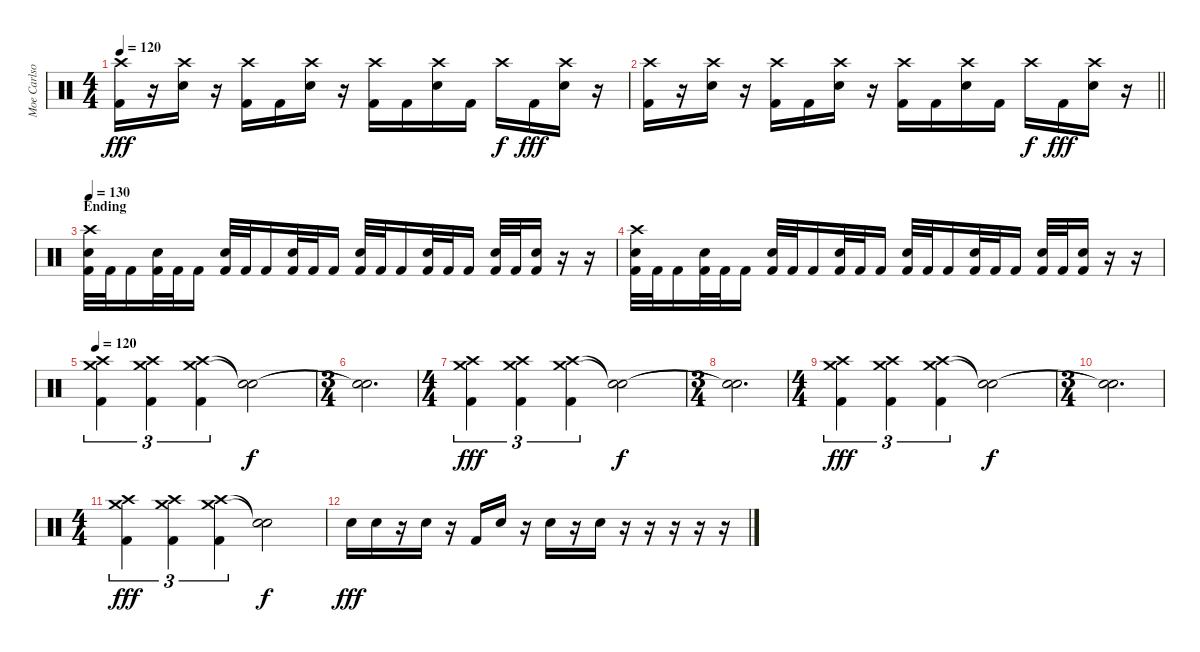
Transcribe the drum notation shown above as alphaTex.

\track ("Moe Carlson" "Moe Carlso") {instrument percussion}
\staff {score}
\articulation defaults
\ts (4 4)
\tempo 120
\clef neutral
\ks c
("Crash high (hit)" "Kick (hit) 2").16{dy fff} r.16 ("Crash high (hit)" "Electric Snare (hit)").16 r.16 ("Crash high (hit)" "Kick (hit) 2").16 "Kick (hit) 2".16 ("Crash high (hit)" "Electric Snare (hit)").16 r.16 ("Crash high (hit)" "Kick (hit) 2").16 "Kick (hit) 2".16 ("Crash high (hit)" "Electric Snare (hit)").16 "Kick (hit) 2".16 "Crash high (hit)".16{dy f} "Kick (hit) 2".16{dy fff} ("Crash high (hit)" "Electric Snare (hit)").16 r.16 |
\barLineRight lightlight
("Crash high (hit)" "Kick (hit) 2").16 r.16 ("Crash high (hit)" "Electric Snare (hit)").16 r.16 ("Crash high (hit)" "Kick (hit) 2").16 "Kick (hit) 2".16 ("Crash high (hit)" "Electric Snare (hit)").16 r.16 ("Crash high (hit)" "Kick (hit) 2").16 "Kick (hit) 2".16 ("Crash high (hit)" "Electric Snare (hit)").16 "Kick (hit) 2".16 "Crash high (hit)".16{dy f} "Kick (hit) 2".16{dy fff} ("Crash high (hit)" "Electric Snare (hit)").16 r.16 |
\section ("" "Ending")
\tempo 130
("Crash high (hit)" "Electric Snare (hit)" "Kick (hit) 2").32 "Kick (hit) 2".32 "Kick (hit) 2".16 ("Electric Snare (hit)" "Kick (hit) 2").32 "Kick (hit) 2".32 "Kick (hit) 2".16 ("Electric Snare (hit)" "Kick (hit) 2").32 "Kick (hit) 2".32 "Kick (hit) 2".16 ("Electric Snare (hit)" "Kick (hit) 2").32 "Kick (hit) 2".32 "Kick (hit) 2".16 ("Electric Snare (hit)" "Kick (hit) 2").32 "Kick (hit) 2".32 "Kick (hit) 2".16 ("Electric Snare (hit)" "Kick (hit) 2").32 "Kick (hit) 2".32 "Kick (hit) 2".16 ("Electric Snare (hit)" "Kick (hit) 2").32 "Kick (hit) 2".32 ("Electric Snare (hit)" "Kick (hit) 2").16 r.16 r.16 |
("Crash high (hit)" "Electric Snare (hit)" "Kick (hit) 2").32 "Kick (hit) 2".32 "Kick (hit) 2".16 ("Electric Snare (hit)" "Kick (hit) 2").32 "Kick (hit) 2".32 "Kick (hit) 2".16 ("Electric Snare (hit)" "Kick (hit) 2").32 "Kick (hit) 2".32 "Kick (hit) 2".16 ("Electric Snare (hit)" "Kick (hit) 2").32 "Kick (hit) 2".32 "Kick (hit) 2".16 ("Electric Snare (hit)" "Kick (hit) 2").32 "Kick (hit) 2".32 "Kick (hit) 2".16 ("Electric Snare (hit)" "Kick (hit) 2").32 "Kick (hit) 2".32 "Kick (hit) 2".16 ("Electric Snare (hit)" "Kick (hit) 2").32 "Kick (hit) 2".32 ("Electric Snare (hit)" "Kick (hit) 2").16 r.16 r.16 |
\tempo 120
("Crash medium (hit)" "Crash high (hit)" "Kick (hit) 2").4{tu (3 2)} ("Crash medium (hit)" "Crash high (hit)" "Kick (hit) 2").4{tu (3 2)} ("Crash medium (hit)" "Crash high (hit)" "Kick (hit) 2").4{tu (3 2)} ("Snare (hit)"{t} "Snare (hit)"{t}).2{dy f} |
\ts (3 4)
("Snare (hit)"{t} "Snare (hit)"{t}).2{d} |
\ts (4 4)
("Crash medium (hit)" "Crash high (hit)" "Kick (hit) 2").4{tu (3 2) dy fff} ("Crash medium (hit)" "Crash high (hit)" "Kick (hit) 2").4{tu (3 2)} ("Crash medium (hit)" "Crash high (hit)" "Kick (hit) 2").4{tu (3 2)} ("Snare (hit)"{t} "Snare (hit)"{t}).2{dy f} |
\ts (3 4)
("Snare (hit)"{t} "Snare (hit)"{t}).2{d} |
\ts (4 4)
("Crash medium (hit)" "Crash high (hit)" "Kick (hit) 2").4{tu (3 2) dy fff} ("Crash medium (hit)" "Crash high (hit)" "Kick (hit) 2").4{tu (3 2)} ("Crash medium (hit)" "Crash high (hit)" "Kick (hit) 2").4{tu (3 2)} ("Snare (hit)"{t} "Snare (hit)"{t}).2{dy f} |
\ts (3 4)
("Snare (hit)"{t} "Snare (hit)"{t}).2{d} |
\ts (4 4)
("Crash medium (hit)" "Crash high (hit)" "Kick (hit) 2").4{tu (3 2) dy fff} ("Crash medium (hit)" "Crash high (hit)" "Kick (hit) 2").4{tu (3 2)} ("Crash medium (hit)" "Crash high (hit)" "Kick (hit) 2").4{tu (3 2)} ("Snare (hit)"{t} "Snare (hit)"{t}).2{dy f} |
"Electric Snare (hit)".16{dy fff} "Electric Snare (hit)".16 r.16 "Electric Snare (hit)".16 r.16 "Kick (hit) 2".16 "Electric Snare (hit)".16 r.16 "Electric Snare (hit)".16 r.16 "Electric Snare (hit)".16 r.16 r.16 r.16 r.16 r.16
